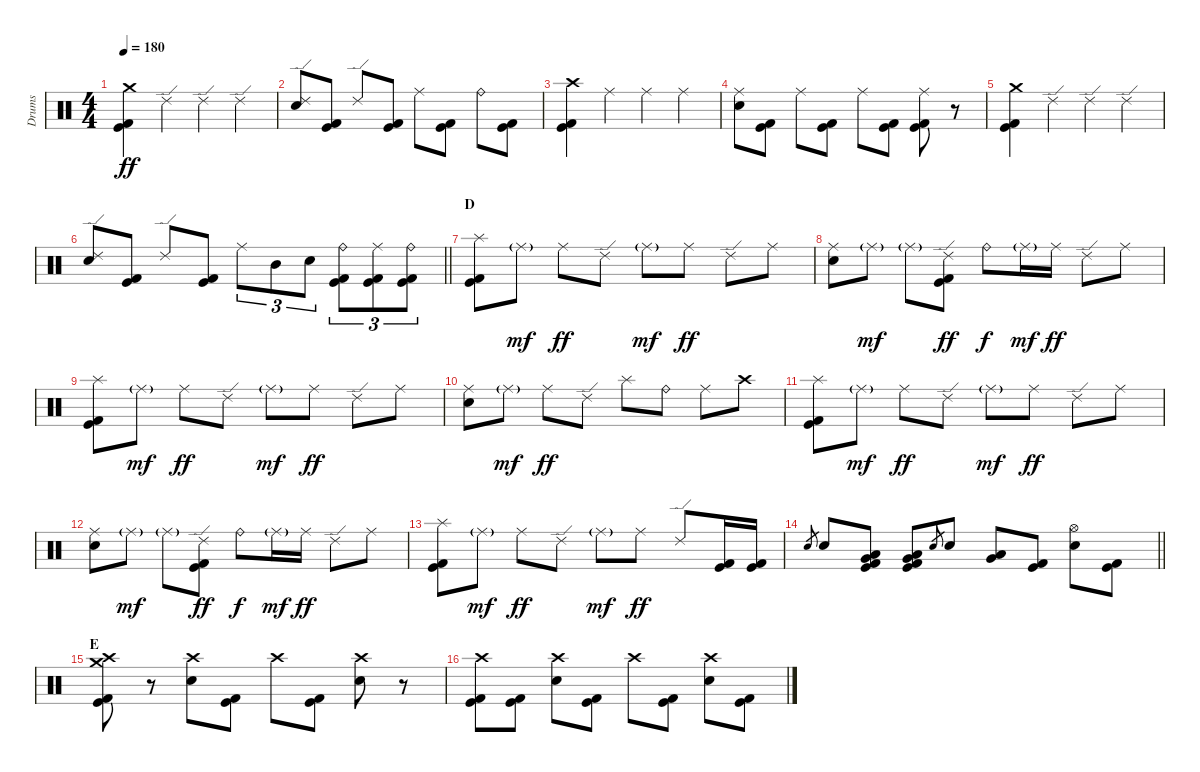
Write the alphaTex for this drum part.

\track ("Drums" "Drums") {instrument percussion}
\staff {score}
\articulation defaults
\ts (4 4)
\tempo 180
\clef neutral
\ks c
("Crash medium (hit)" "Kick (hit)" "Kick (hit) 2").4{dy ff} "Ride (edge) 2".4 "Ride (edge) 2".4 "Ride (edge) 2".4 |
("Ride (edge) 2" "Electric Snare (hit)").8 ("Kick (hit)" "Kick (hit) 2").8 "Ride (edge) 2".8 ("Kick (hit)" "Kick (hit) 2").8 "Ride (middle)".8 ("Kick (hit)" "Kick (hit) 2").8 "Ride (bell)".8 ("Kick (hit)" "Kick (hit) 2").8 |
("Crash high (hit)" "Kick (hit)" "Kick (hit) 2").4 "Ride (middle)".4 "Ride (middle)".4 "Ride (middle)".4 |
("Ride (middle)" "Electric Snare (hit)").8 ("Kick (hit)" "Kick (hit) 2").8 "Ride (middle)".8 ("Kick (hit)" "Kick (hit) 2").8 "Ride (middle)".8 ("Kick (hit)" "Kick (hit) 2").8 ("Ride (middle)" "Kick (hit)" "Kick (hit) 2").8 r.8 |
("Crash medium (hit)" "Kick (hit)" "Kick (hit) 2").4 "Ride (edge) 2".4 "Ride (edge) 2".4 "Ride (edge) 2".4 |
\barLineRight lightlight
("Ride (edge) 2" "Electric Snare (hit)").8 ("Kick (hit)" "Kick (hit) 2").8 "Ride (edge) 2".8 ("Kick (hit)" "Kick (hit) 2").8 "Ride (middle)".8{tu (3 2)} "Mid Tom (hit)".8{tu (3 2)} "Electric Snare (hit)".8{tu (3 2)} ("Ride (bell)" "Kick (hit)" "Kick (hit) 2").8{tu (3 2)} ("Ride (middle)" "Kick (hit)" "Kick (hit) 2").8{tu (3 2)} ("Ride (bell)" "Kick (hit)" "Kick (hit) 2").8{tu (3 2)} |
\section ("" "D")
("Splash (hit)" "Kick (hit)" "Kick (hit) 2").8 "Ride (middle)"{g}.8{dy mf} "Ride (middle)".8{dy ff} "Ride (edge) 2".8 "Ride (middle)"{g}.8{dy mf} "Ride (middle)".8{dy ff} "Ride (edge) 2".8 "Ride (middle)".8 |
("Ride (middle)" "Electric Snare (hit)").8 "Ride (middle)"{g}.8{dy mf} "Ride (middle)"{g}.8 ("Ride (edge) 2" "Kick (hit)" "Kick (hit) 2").8{dy ff} "Ride (bell)".8{dy f} "Ride (middle)"{g}.16{dy mf} "Ride (middle)".16{dy ff} "Ride (edge) 2".8 "Ride (middle)".8 |
("Splash (hit)" "Kick (hit)" "Kick (hit) 2").8 "Ride (middle)"{g}.8{dy mf} "Ride (middle)".8{dy ff} "Ride (edge) 2".8 "Ride (middle)"{g}.8{dy mf} "Ride (middle)".8{dy ff} "Ride (edge) 2".8 "Ride (middle)".8 |
("Ride (middle)" "Electric Snare (hit)").8 "Ride (middle)"{g}.8{dy mf} "Ride (middle)".8{dy ff} "Ride (edge) 2".8 "Splash (hit)".8 "Ride (bell)".8 "Ride (middle)".8 "Crash high (hit)".8 |
("Splash (hit)" "Kick (hit)" "Kick (hit) 2").8 "Ride (middle)"{g}.8{dy mf} "Ride (middle)".8{dy ff} "Ride (edge) 2".8 "Ride (middle)"{g}.8{dy mf} "Ride (middle)".8{dy ff} "Ride (edge) 2".8 "Ride (middle)".8 |
("Ride (middle)" "Electric Snare (hit)").8 "Ride (middle)"{g}.8{dy mf} "Ride (middle)"{g}.8 ("Ride (edge) 2" "Kick (hit)" "Kick (hit) 2").8{dy ff} "Ride (bell)".8{dy f} "Ride (middle)"{g}.16{dy mf} "Ride (middle)".16{dy ff} "Ride (edge) 2".8 "Ride (middle)".8 |
("Splash (hit)" "Kick (hit)" "Kick (hit) 2").8 "Ride (middle)"{g}.8{dy mf} "Ride (middle)".8{dy ff} "Ride (edge) 2".8 "Ride (middle)"{g}.8{dy mf} "Ride (middle)".8{dy ff} "Ride (edge) 2".8 ("Kick (hit)" "Kick (hit) 2").16 ("Kick (hit)" "Kick (hit) 2").16 |
\barLineRight lightlight "Electric Snare (hit)".8{gr} "Electric Snare (hit)".8
("Low Floor Tom (hit)" "Very Low Tom (hit)" "Kick (hit)" "Kick (hit) 2").8 ("Low Floor Tom (hit)" "Very Low Tom (hit)" "Kick (hit)" "Kick (hit) 2").8 "Electric Snare (hit)".8{gr} "Electric Snare (hit)".8 ("Low Floor Tom (hit)" "Very Low Tom (hit)").8 ("Kick (hit)" "Kick (hit) 2").8 ("Hi-Hat (open)" "Electric Snare (hit)").8 ("Kick (hit)" "Kick (hit) 2").8 |
\section ("" "E")
("Crash medium (hit)" "Crash high (hit)" "Kick (hit)" "Kick (hit) 2").8 r.8 ("Crash high (hit)" "Electric Snare (hit)").8 ("Kick (hit)" "Kick (hit) 2").8 "Crash high (hit)".8 ("Kick (hit)" "Kick (hit) 2").8 ("Crash high (hit)" "Electric Snare (hit)").8 r.8 |
("Crash high (hit)" "Kick (hit)" "Kick (hit) 2").8 ("Kick (hit)" "Kick (hit) 2").8 ("Crash high (hit)" "Electric Snare (hit)").8 ("Kick (hit)" "Kick (hit) 2").8 "Crash high (hit)".8 ("Kick (hit)" "Kick (hit) 2").8 ("Crash high (hit)" "Electric Snare (hit)").8 ("Kick (hit)" "Kick (hit) 2").8
